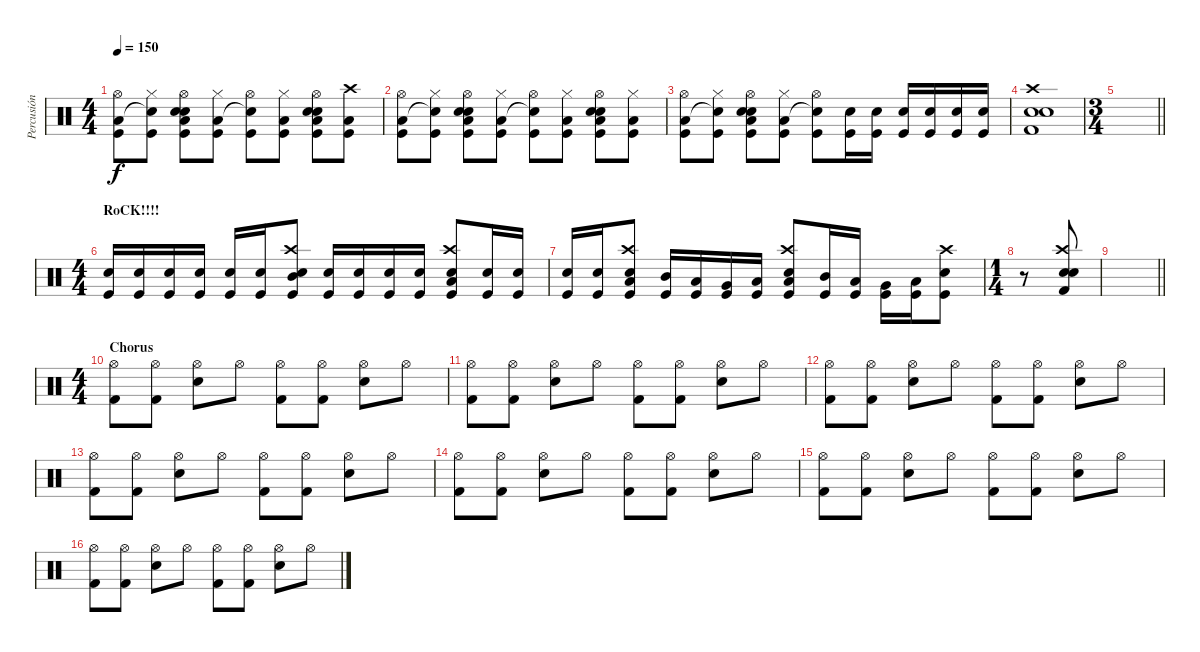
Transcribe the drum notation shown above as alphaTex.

\track ("Percusión" "Percusión") {instrument percussion}
\staff {score}
\articulation defaults
\ts (4 4)
\tempo 150
\clef neutral
\ks c
("Hi-Hat (open)" "Low Floor Tom (hit)" "Kick (hit)").8{dy f} ("Hi-Hat (closed)" "Snare (hit)"{t} "Kick (hit)").8 ("Hi-Hat (open)" "Electric Snare (hit)" "Hand Clap (hit)" "Low Floor Tom (hit)" "Kick (hit)").8 ("Hi-Hat (closed)" "Low Floor Tom (hit)" "Kick (hit)").8 ("Hi-Hat (open)" "Snare (hit)"{t} "Kick (hit)").8 ("Hi-Hat (closed)" "Low Floor Tom (hit)" "Kick (hit)").8 ("Hi-Hat (open)" "Electric Snare (hit)" "Hand Clap (hit)" "Low Floor Tom (hit)" "Kick (hit)").8 ("Crash high (hit)" "Low Floor Tom (hit)" "Kick (hit)").8 |
("Hi-Hat (open)" "Low Floor Tom (hit)" "Kick (hit)").8 ("Hi-Hat (closed)" "Snare (hit)"{t} "Kick (hit)").8 ("Hi-Hat (open)" "Electric Snare (hit)" "Hand Clap (hit)" "Low Floor Tom (hit)" "Kick (hit)").8 ("Hi-Hat (closed)" "Low Floor Tom (hit)" "Kick (hit)").8 ("Hi-Hat (open)" "Snare (hit)"{t} "Kick (hit)").8 ("Hi-Hat (closed)" "Low Floor Tom (hit)" "Kick (hit)").8 ("Hi-Hat (open)" "Electric Snare (hit)" "Hand Clap (hit)" "Low Floor Tom (hit)" "Kick (hit)").8 ("Hi-Hat (closed)" "Low Floor Tom (hit)" "Kick (hit)").8 |
("Hi-Hat (open)" "Low Floor Tom (hit)" "Kick (hit)").8 ("Hi-Hat (closed)" "Snare (hit)"{t} "Kick (hit)").8 ("Hi-Hat (open)" "Electric Snare (hit)" "Hand Clap (hit)" "Low Floor Tom (hit)" "Kick (hit)").8 ("Hi-Hat (closed)" "Low Floor Tom (hit)" "Kick (hit)").8 ("Hi-Hat (open)" "Snare (hit)"{t} "Kick (hit)").8 ("Electric Snare (hit)" "Kick (hit)").16 ("Electric Snare (hit)" "Kick (hit)").16 ("Electric Snare (hit)" "Kick (hit)").16 ("Electric Snare (hit)" "Kick (hit)").16 ("Electric Snare (hit)" "Kick (hit)").16 ("Electric Snare (hit)" "Kick (hit)").16 |
("Crash high (hit)" "Electric Snare (hit)" "Snare (hit) 2" "Kick (hit) 2").1 |
\ts (3 4)
\barLineRight lightlight
|
\ts (4 4)
\section ("" "RoCK!!!!")
("Electric Snare (hit)" "Kick (hit)").16 ("Electric Snare (hit)" "Kick (hit)").16 ("Electric Snare (hit)" "Kick (hit)").16 ("Electric Snare (hit)" "Kick (hit)").16 ("Electric Snare (hit)" "Kick (hit)").16 ("Electric Snare (hit)" "Kick (hit)").16 ("Crash high (hit)" "Mid Tom (hit)" "Electric Snare (hit)" "Kick (hit)").8 ("Electric Snare (hit)" "Kick (hit)").16 ("Electric Snare (hit)" "Kick (hit)").16 ("Electric Snare (hit)" "Kick (hit)").16 ("Electric Snare (hit)" "Kick (hit)").16 ("Crash high (hit)" "Low Tom (hit)" "Electric Snare (hit)" "Kick (hit)").8 ("Electric Snare (hit)" "Kick (hit)").16 ("Electric Snare (hit)" "Kick (hit)").16 |
("Electric Snare (hit)" "Kick (hit)").16 ("Electric Snare (hit)" "Kick (hit)").16 ("Crash high (hit)" "Low Tom (hit)" "Electric Snare (hit)" "Kick (hit)").8 ("Mid Tom (hit)" "Kick (hit)").16 ("Low Tom (hit)" "Kick (hit)").16 ("Very Low Tom (hit)" "Kick (hit)").16 ("Low Floor Tom (hit)" "Kick (hit)").16 ("Crash high (hit)" "Low Tom (hit)" "Electric Snare (hit)" "Kick (hit)").8 ("Mid Tom (hit)" "Kick (hit)").16 ("Low Tom (hit)" "Kick (hit)").16 ("Very Low Tom (hit)" "Kick (hit)").16 ("Low Floor Tom (hit)" "Kick (hit)").16 ("Crash high (hit)" "Electric Snare (hit)" "Kick (hit)").8 |
\ts (1 4)
r.8 ("Crash high (hit)" "Electric Snare (hit)" "Snare (hit) 2" "Kick (hit) 2").8 |
\barLineRight lightlight
|
\ts (4 4)
\section ("" "Chorus")
("Hi-Hat (open)" "Kick (hit) 2").8 ("Hi-Hat (open)" "Kick (hit) 2").8 ("Hi-Hat (open)" "Snare (hit) 2").8 "Hi-Hat (open)".8 ("Hi-Hat (open)" "Kick (hit) 2").8 ("Hi-Hat (open)" "Kick (hit) 2").8 ("Hi-Hat (open)" "Snare (hit) 2").8 "Hi-Hat (open)".8 |
("Hi-Hat (open)" "Kick (hit) 2").8 ("Hi-Hat (open)" "Kick (hit) 2").8 ("Hi-Hat (open)" "Snare (hit) 2").8 "Hi-Hat (open)".8 ("Hi-Hat (open)" "Kick (hit) 2").8 ("Hi-Hat (open)" "Kick (hit) 2").8 ("Hi-Hat (open)" "Snare (hit) 2").8 "Hi-Hat (open)".8 |
("Hi-Hat (open)" "Kick (hit) 2").8 ("Hi-Hat (open)" "Kick (hit) 2").8 ("Hi-Hat (open)" "Snare (hit) 2").8 "Hi-Hat (open)".8 ("Hi-Hat (open)" "Kick (hit) 2").8 ("Hi-Hat (open)" "Kick (hit) 2").8 ("Hi-Hat (open)" "Snare (hit) 2").8 "Hi-Hat (open)".8 |
("Hi-Hat (open)" "Kick (hit) 2").8 ("Hi-Hat (open)" "Kick (hit) 2").8 ("Hi-Hat (open)" "Snare (hit) 2").8 "Hi-Hat (open)".8 ("Hi-Hat (open)" "Kick (hit) 2").8 ("Hi-Hat (open)" "Kick (hit) 2").8 ("Hi-Hat (open)" "Snare (hit) 2").8 "Hi-Hat (open)".8 |
("Hi-Hat (open)" "Kick (hit) 2").8 ("Hi-Hat (open)" "Kick (hit) 2").8 ("Hi-Hat (open)" "Snare (hit) 2").8 "Hi-Hat (open)".8 ("Hi-Hat (open)" "Kick (hit) 2").8 ("Hi-Hat (open)" "Kick (hit) 2").8 ("Hi-Hat (open)" "Snare (hit) 2").8 "Hi-Hat (open)".8 |
("Hi-Hat (open)" "Kick (hit) 2").8 ("Hi-Hat (open)" "Kick (hit) 2").8 ("Hi-Hat (open)" "Snare (hit) 2").8 "Hi-Hat (open)".8 ("Hi-Hat (open)" "Kick (hit) 2").8 ("Hi-Hat (open)" "Kick (hit) 2").8 ("Hi-Hat (open)" "Snare (hit) 2").8 "Hi-Hat (open)".8 |
("Hi-Hat (open)" "Kick (hit) 2").8 ("Hi-Hat (open)" "Kick (hit) 2").8 ("Hi-Hat (open)" "Snare (hit) 2").8 "Hi-Hat (open)".8 ("Hi-Hat (open)" "Kick (hit) 2").8 ("Hi-Hat (open)" "Kick (hit) 2").8 ("Hi-Hat (open)" "Snare (hit) 2").8 "Hi-Hat (open)".8
